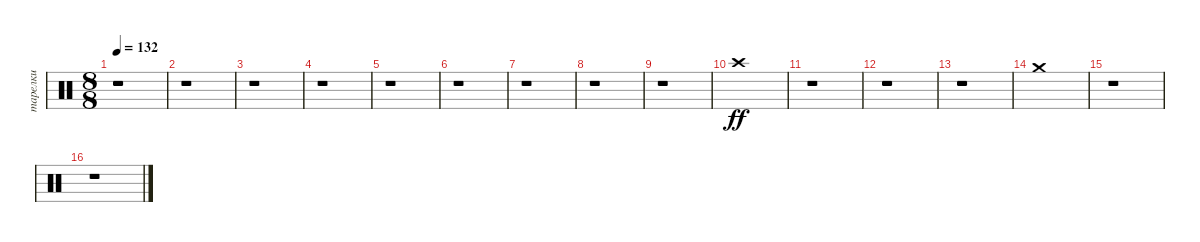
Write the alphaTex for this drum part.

\track ("тарелки" "тарелки") {instrument percussion}
\staff {score}
\articulation defaults
\ts (8 8)
\tempo 132
\clef neutral
\ks c
r.1{dy ff} |
r.1 |
r.1 |
r.1 |
r.1 |
r.1 |
r.1 |
r.1 |
r.1 |
"Crash high (hit)".1 |
r.1 |
r.1 |
r.1 |
"Crash medium (hit)".1 |
r.1 |
r.1
